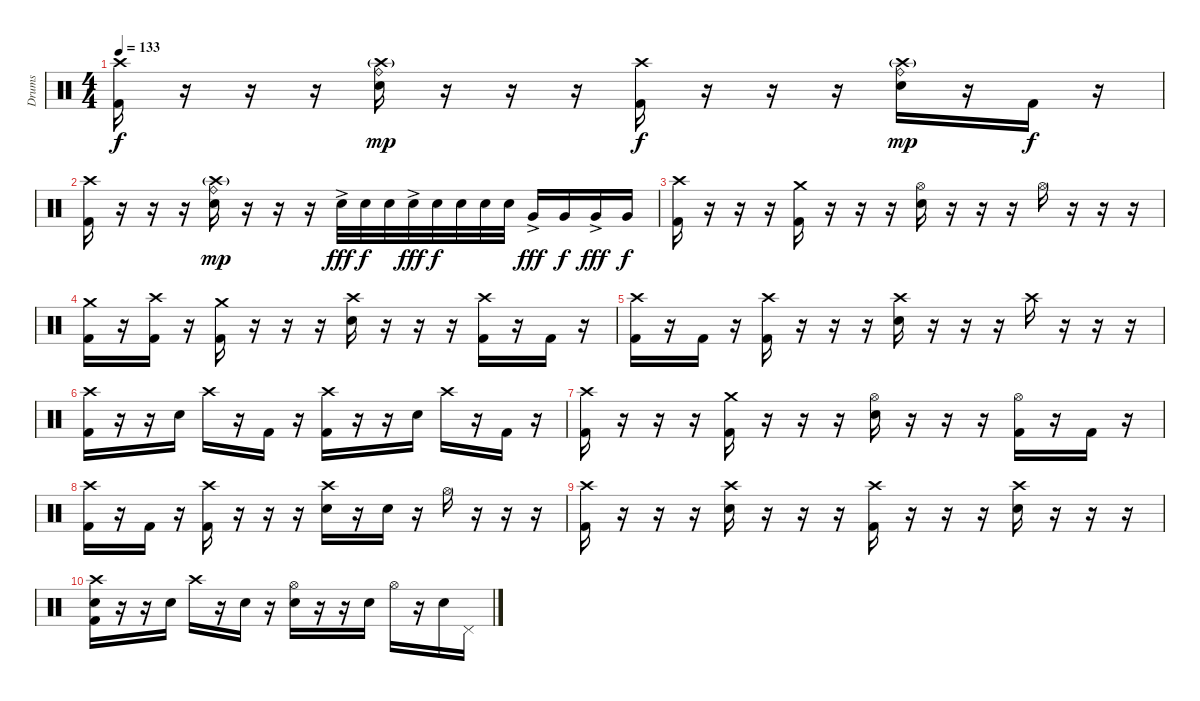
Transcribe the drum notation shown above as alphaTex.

\track ("Drums" "Drums") {instrument percussion}
\staff {score}
\articulation defaults
\ts (4 4)
\tempo 133
\clef neutral
\ks c
("Crash high (hit)" "Kick (hit) 2").16{dy f} r.16 r.16 r.16 ("Crash high (hit)"{g} "Ride (bell)" "Snare (hit) 2").16{dy mp} r.16 r.16 r.16 ("Crash high (hit)" "Kick (hit) 2").16{dy f} r.16 r.16 r.16 ("Crash high (hit)"{g} "Ride (bell)" "Snare (hit) 2").16{dy mp} r.16 "Kick (hit) 2".16{dy f} r.16 |
("Crash high (hit)" "Kick (hit) 2").16 r.16 r.16 r.16 ("Crash high (hit)"{g} "Ride (bell)" "Snare (hit) 2").16{dy mp} r.16 r.16 r.16 "Snare (hit) 2"{ac}.32{dy fff} "Snare (hit) 2".32{dy f} "Snare (hit) 2".32 "Snare (hit) 2"{ac}.32{dy fff} "Snare (hit) 2".32{dy f} "Snare (hit) 2".32 "Snare (hit) 2".32 "Snare (hit) 2".32 "Very Low Tom (hit)"{ac}.16{dy fff} "Very Low Tom (hit)".16{dy f} "Very Low Tom (hit)"{ac}.16{dy fff} "Very Low Tom (hit)".16{dy f} |
("Crash high (hit)" "Kick (hit) 2").16 r.16 r.16 r.16 ("Crash medium (hit)" "Kick (hit) 2").16 r.16 r.16 r.16 ("Hi-Hat (open)" "Snare (hit) 2").16 r.16 r.16 r.16 "Hi-Hat (open)".16 r.16 r.16 r.16 |
("Crash medium (hit)" "Kick (hit) 2").16 r.16 ("Crash high (hit)" "Kick (hit) 2").16 r.16 ("Crash medium (hit)" "Kick (hit) 2").16 r.16 r.16 r.16 ("Crash high (hit)" "Snare (hit) 2").16 r.16 r.16 r.16 ("Crash high (hit)" "Kick (hit) 2").16 r.16 "Kick (hit) 2".16 r.16 |
("Crash high (hit)" "Kick (hit) 2").16 r.16 "Kick (hit) 2".16 r.16 ("Crash high (hit)" "Kick (hit) 2").16 r.16 r.16 r.16 ("Crash high (hit)" "Snare (hit) 2").16 r.16 r.16 r.16 "Crash high (hit)".16 r.16 r.16 r.16 |
("Crash high (hit)" "Kick (hit) 2").16 r.16 r.16 "Snare (hit) 2".16 "Crash high (hit)".16 r.16 "Kick (hit) 2".16 r.16 ("Crash high (hit)" "Kick (hit) 2").16 r.16 r.16 "Snare (hit) 2".16 "Crash high (hit)".16 r.16 "Kick (hit) 2".16 r.16 |
("Crash high (hit)" "Kick (hit) 2").16 r.16 r.16 r.16 ("Crash medium (hit)" "Kick (hit) 2").16 r.16 r.16 r.16 ("Hi-Hat (open)" "Snare (hit) 2").16 r.16 r.16 r.16 ("Hi-Hat (open)" "Kick (hit) 2").16 r.16 "Kick (hit) 2".16 r.16 |
("Crash high (hit)" "Kick (hit) 2").16 r.16 "Kick (hit) 2".16 r.16 ("Crash high (hit)" "Kick (hit) 2").16 r.16 r.16 r.16 ("Crash high (hit)" "Snare (hit) 2").16 r.16 "Snare (hit) 2".16 r.16 "Hi-Hat (open)".16 r.16 r.16 r.16 |
("Crash high (hit)" "Kick (hit) 2").16 r.16 r.16 r.16 ("Crash high (hit)" "Snare (hit) 2").16 r.16 r.16 r.16 ("Crash high (hit)" "Kick (hit) 2").16 r.16 r.16 r.16 ("Crash high (hit)" "Snare (hit) 2").16 r.16 r.16 r.16 |
("Crash high (hit)" "Snare (hit) 2" "Kick (hit) 2").16 r.16 r.16 "Snare (hit) 2".16 "Crash high (hit)".16 r.16 "Snare (hit) 2".16 r.16 ("Hi-Hat (open)" "Snare (hit) 2").16 r.16 r.16 "Snare (hit) 2".16 "Hi-Hat (open)".16 r.16 "Snare (hit) 2".16 "Pedal Hi-Hat (hit)".16
